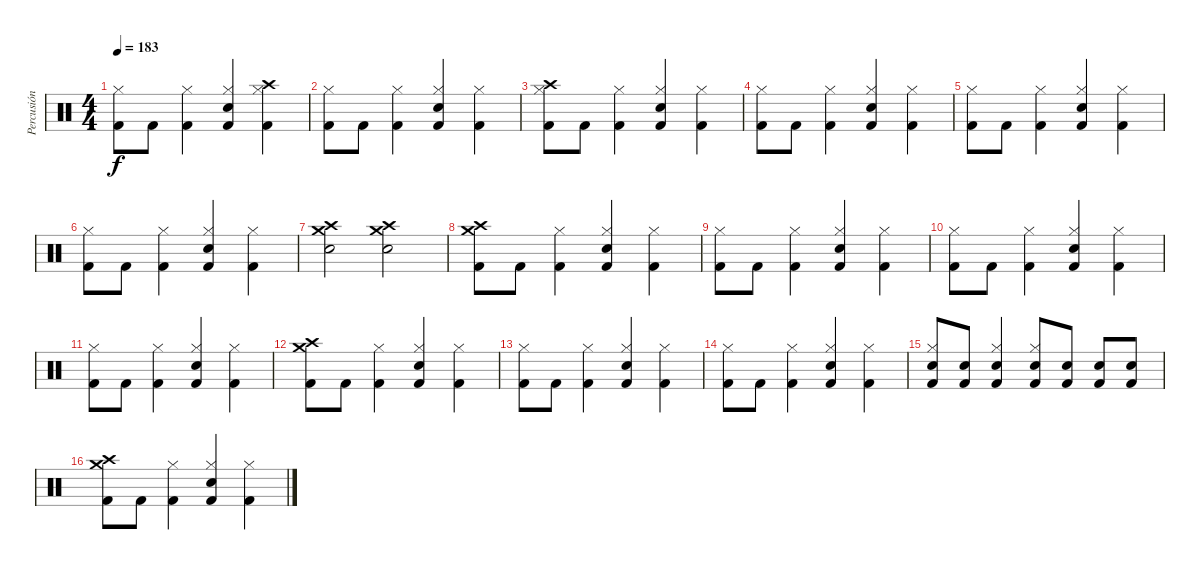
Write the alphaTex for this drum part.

\track ("Percusión" "Percusión") {instrument percussion}
\staff {score}
\articulation defaults
\ts (4 4)
\tempo 183
\clef neutral
\ks c
("Kick (hit) 2" "Hi-Hat (closed)").8{dy f} "Kick (hit) 2".8 ("Kick (hit) 2" "Hi-Hat (closed)").4 ("Kick (hit) 2" "Electric Snare (hit)" "Hi-Hat (closed)").4 ("Kick (hit) 2" "Hi-Hat (closed)" "Crash high (hit)").4 |
("Kick (hit) 2" "Hi-Hat (closed)").8 "Kick (hit) 2".8 ("Kick (hit) 2" "Hi-Hat (closed)").4 ("Kick (hit) 2" "Electric Snare (hit)" "Hi-Hat (closed)").4 ("Kick (hit) 2" "Hi-Hat (closed)").4 |
("Kick (hit) 2" "Hi-Hat (closed)" "Crash high (hit)").8 "Kick (hit) 2".8 ("Kick (hit) 2" "Hi-Hat (closed)").4 ("Kick (hit) 2" "Electric Snare (hit)" "Hi-Hat (closed)").4 ("Kick (hit) 2" "Hi-Hat (closed)").4 |
("Kick (hit) 2" "Hi-Hat (closed)").8 "Kick (hit) 2".8 ("Kick (hit) 2" "Hi-Hat (closed)").4 ("Kick (hit) 2" "Electric Snare (hit)" "Hi-Hat (closed)").4 ("Kick (hit) 2" "Hi-Hat (closed)").4 |
("Kick (hit) 2" "Hi-Hat (closed)").8 "Kick (hit) 2".8 ("Kick (hit) 2" "Hi-Hat (closed)").4 ("Kick (hit) 2" "Electric Snare (hit)" "Hi-Hat (closed)").4 ("Kick (hit) 2" "Hi-Hat (closed)").4 |
("Kick (hit) 2" "Hi-Hat (closed)").8 "Kick (hit) 2".8 ("Kick (hit) 2" "Hi-Hat (closed)").4 ("Kick (hit) 2" "Electric Snare (hit)" "Hi-Hat (closed)").4 ("Kick (hit) 2" "Hi-Hat (closed)").4 |
("Electric Snare (hit)" "Crash medium (hit)" "Crash high (hit)").2 ("Electric Snare (hit)" "Crash medium (hit)" "Crash high (hit)").2 |
("Kick (hit) 2" "Crash medium (hit)" "Crash high (hit)").8 "Kick (hit) 2".8 ("Kick (hit) 2" "Hi-Hat (closed)").4 ("Kick (hit) 2" "Electric Snare (hit)" "Hi-Hat (closed)").4 ("Kick (hit) 2" "Hi-Hat (closed)").4 |
("Kick (hit) 2" "Hi-Hat (closed)").8 "Kick (hit) 2".8 ("Kick (hit) 2" "Hi-Hat (closed)").4 ("Kick (hit) 2" "Electric Snare (hit)" "Hi-Hat (closed)").4 ("Kick (hit) 2" "Hi-Hat (closed)").4 |
("Kick (hit) 2" "Hi-Hat (closed)").8 "Kick (hit) 2".8 ("Kick (hit) 2" "Hi-Hat (closed)").4 ("Kick (hit) 2" "Electric Snare (hit)" "Hi-Hat (closed)").4 ("Kick (hit) 2" "Hi-Hat (closed)").4 |
("Kick (hit) 2" "Hi-Hat (closed)").8 "Kick (hit) 2".8 ("Kick (hit) 2" "Hi-Hat (closed)").4 ("Kick (hit) 2" "Electric Snare (hit)" "Hi-Hat (closed)").4 ("Kick (hit) 2" "Hi-Hat (closed)").4 |
("Kick (hit) 2" "Crash medium (hit)" "Crash high (hit)").8 "Kick (hit) 2".8 ("Kick (hit) 2" "Hi-Hat (closed)").4 ("Kick (hit) 2" "Electric Snare (hit)" "Hi-Hat (closed)").4 ("Kick (hit) 2" "Hi-Hat (closed)").4 |
("Kick (hit) 2" "Hi-Hat (closed)").8 "Kick (hit) 2".8 ("Kick (hit) 2" "Hi-Hat (closed)").4 ("Kick (hit) 2" "Electric Snare (hit)" "Hi-Hat (closed)").4 ("Kick (hit) 2" "Hi-Hat (closed)").4 |
("Kick (hit) 2" "Hi-Hat (closed)").8 "Kick (hit) 2".8 ("Kick (hit) 2" "Hi-Hat (closed)").4 ("Kick (hit) 2" "Electric Snare (hit)" "Hi-Hat (closed)").4 ("Kick (hit) 2" "Hi-Hat (closed)").4 |
("Kick (hit) 2" "Electric Snare (hit)" "Hi-Hat (closed)").8 ("Kick (hit) 2" "Electric Snare (hit)").8 ("Kick (hit) 2" "Electric Snare (hit)" "Hi-Hat (closed)").4 ("Kick (hit) 2" "Electric Snare (hit)" "Hi-Hat (closed)").8 ("Kick (hit) 2" "Electric Snare (hit)").8 ("Kick (hit) 2" "Electric Snare (hit)").8 ("Kick (hit) 2" "Electric Snare (hit)").8 |
("Kick (hit) 2" "Crash medium (hit)" "Crash high (hit)").8 "Kick (hit) 2".8 ("Kick (hit) 2" "Hi-Hat (closed)").4 ("Kick (hit) 2" "Electric Snare (hit)" "Hi-Hat (closed)").4 ("Kick (hit) 2" "Hi-Hat (closed)").4
